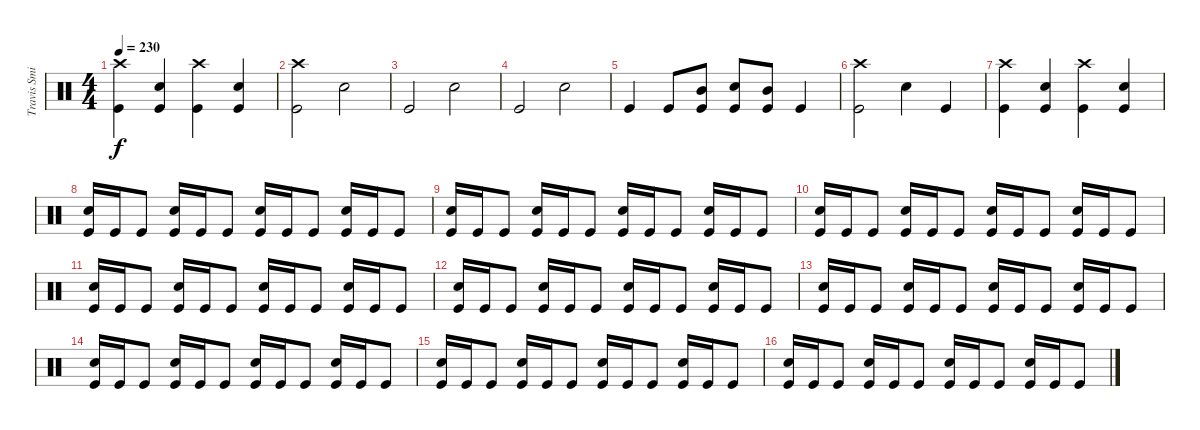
\track ("Travis Smith" "Travis Smi") {instrument percussion}
\staff {score}
\articulation defaults
\ts (4 4)
\tempo 230
\clef neutral
\ks c
("Crash high (hit)" "Kick (hit)").4{dy f} ("Snare (hit) 2" "Kick (hit)").4 ("Crash high (hit)" "Kick (hit)").4 ("Snare (hit) 2" "Kick (hit)").4 |
("Crash high (hit)" "Kick (hit)").2 "Snare (hit) 2".2 |
"Kick (hit)".2 "Snare (hit) 2".2 |
"Kick (hit)".2 "Snare (hit) 2".2 |
"Kick (hit)".4 "Kick (hit)".8 ("Mid Tom (hit)" "Kick (hit)").8 ("Snare (hit) 2" "Kick (hit)").8 ("Mid Tom (hit)" "Kick (hit)").8 "Kick (hit)".4 |
("Crash high (hit)" "Kick (hit)").2 "Snare (hit) 2".4 "Kick (hit)".4 |
("Crash high (hit)" "Kick (hit)").4 ("Snare (hit) 2" "Kick (hit)").4 ("Crash high (hit)" "Kick (hit)").4 ("Snare (hit) 2" "Kick (hit)").4 |
("Snare (hit) 2" "Kick (hit)").16 "Kick (hit)".16 "Kick (hit)".8 ("Snare (hit) 2" "Kick (hit)").16 "Kick (hit)".16 "Kick (hit)".8 ("Snare (hit) 2" "Kick (hit)").16 "Kick (hit)".16 "Kick (hit)".8 ("Snare (hit) 2" "Kick (hit)").16 "Kick (hit)".16 "Kick (hit)".8 |
("Snare (hit) 2" "Kick (hit)").16 "Kick (hit)".16 "Kick (hit)".8 ("Snare (hit) 2" "Kick (hit)").16 "Kick (hit)".16 "Kick (hit)".8 ("Snare (hit) 2" "Kick (hit)").16 "Kick (hit)".16 "Kick (hit)".8 ("Snare (hit) 2" "Kick (hit)").16 "Kick (hit)".16 "Kick (hit)".8 |
("Snare (hit) 2" "Kick (hit)").16 "Kick (hit)".16 "Kick (hit)".8 ("Snare (hit) 2" "Kick (hit)").16 "Kick (hit)".16 "Kick (hit)".8 ("Snare (hit) 2" "Kick (hit)").16 "Kick (hit)".16 "Kick (hit)".8 ("Snare (hit) 2" "Kick (hit)").16 "Kick (hit)".16 "Kick (hit)".8 |
("Snare (hit) 2" "Kick (hit)").16 "Kick (hit)".16 "Kick (hit)".8 ("Snare (hit) 2" "Kick (hit)").16 "Kick (hit)".16 "Kick (hit)".8 ("Snare (hit) 2" "Kick (hit)").16 "Kick (hit)".16 "Kick (hit)".8 ("Snare (hit) 2" "Kick (hit)").16 "Kick (hit)".16 "Kick (hit)".8 |
("Snare (hit) 2" "Kick (hit)").16 "Kick (hit)".16 "Kick (hit)".8 ("Snare (hit) 2" "Kick (hit)").16 "Kick (hit)".16 "Kick (hit)".8 ("Snare (hit) 2" "Kick (hit)").16 "Kick (hit)".16 "Kick (hit)".8 ("Snare (hit) 2" "Kick (hit)").16 "Kick (hit)".16 "Kick (hit)".8 |
("Snare (hit) 2" "Kick (hit)").16 "Kick (hit)".16 "Kick (hit)".8 ("Snare (hit) 2" "Kick (hit)").16 "Kick (hit)".16 "Kick (hit)".8 ("Snare (hit) 2" "Kick (hit)").16 "Kick (hit)".16 "Kick (hit)".8 ("Snare (hit) 2" "Kick (hit)").16 "Kick (hit)".16 "Kick (hit)".8 |
("Snare (hit) 2" "Kick (hit)").16 "Kick (hit)".16 "Kick (hit)".8 ("Snare (hit) 2" "Kick (hit)").16 "Kick (hit)".16 "Kick (hit)".8 ("Snare (hit) 2" "Kick (hit)").16 "Kick (hit)".16 "Kick (hit)".8 ("Snare (hit) 2" "Kick (hit)").16 "Kick (hit)".16 "Kick (hit)".8 |
("Snare (hit) 2" "Kick (hit)").16 "Kick (hit)".16 "Kick (hit)".8 ("Snare (hit) 2" "Kick (hit)").16 "Kick (hit)".16 "Kick (hit)".8 ("Snare (hit) 2" "Kick (hit)").16 "Kick (hit)".16 "Kick (hit)".8 ("Snare (hit) 2" "Kick (hit)").16 "Kick (hit)".16 "Kick (hit)".8 |
("Snare (hit) 2" "Kick (hit)").16 "Kick (hit)".16 "Kick (hit)".8 ("Snare (hit) 2" "Kick (hit)").16 "Kick (hit)".16 "Kick (hit)".8 ("Snare (hit) 2" "Kick (hit)").16 "Kick (hit)".16 "Kick (hit)".8 ("Snare (hit) 2" "Kick (hit)").16 "Kick (hit)".16 "Kick (hit)".8
